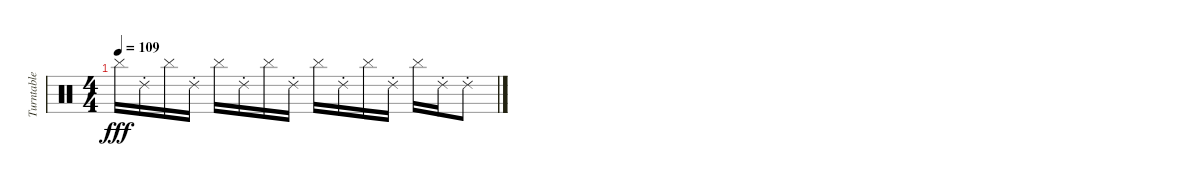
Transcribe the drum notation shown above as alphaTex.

\track ("Turntable" "Turntable") {instrument percussion}
\staff {score}
\articulation defaults
\ts (4 4)
\tempo 109
\clef neutral
\ks c "Cymbal (hit)".16{dy fff volume 9} "Ride (choke) 2".16 "Cymbal (hit)".16 "Ride (choke) 2".16 "Cymbal (hit)".16 "Ride (choke) 2".16 "Cymbal (hit)".16 "Ride (choke) 2".16 "Cymbal (hit)".16 "Ride (choke) 2".16 "Cymbal (hit)".16 "Ride (choke) 2".16 "Cymbal (hit)".16 "Ride (choke) 2".16 "Ride (choke) 2".8
